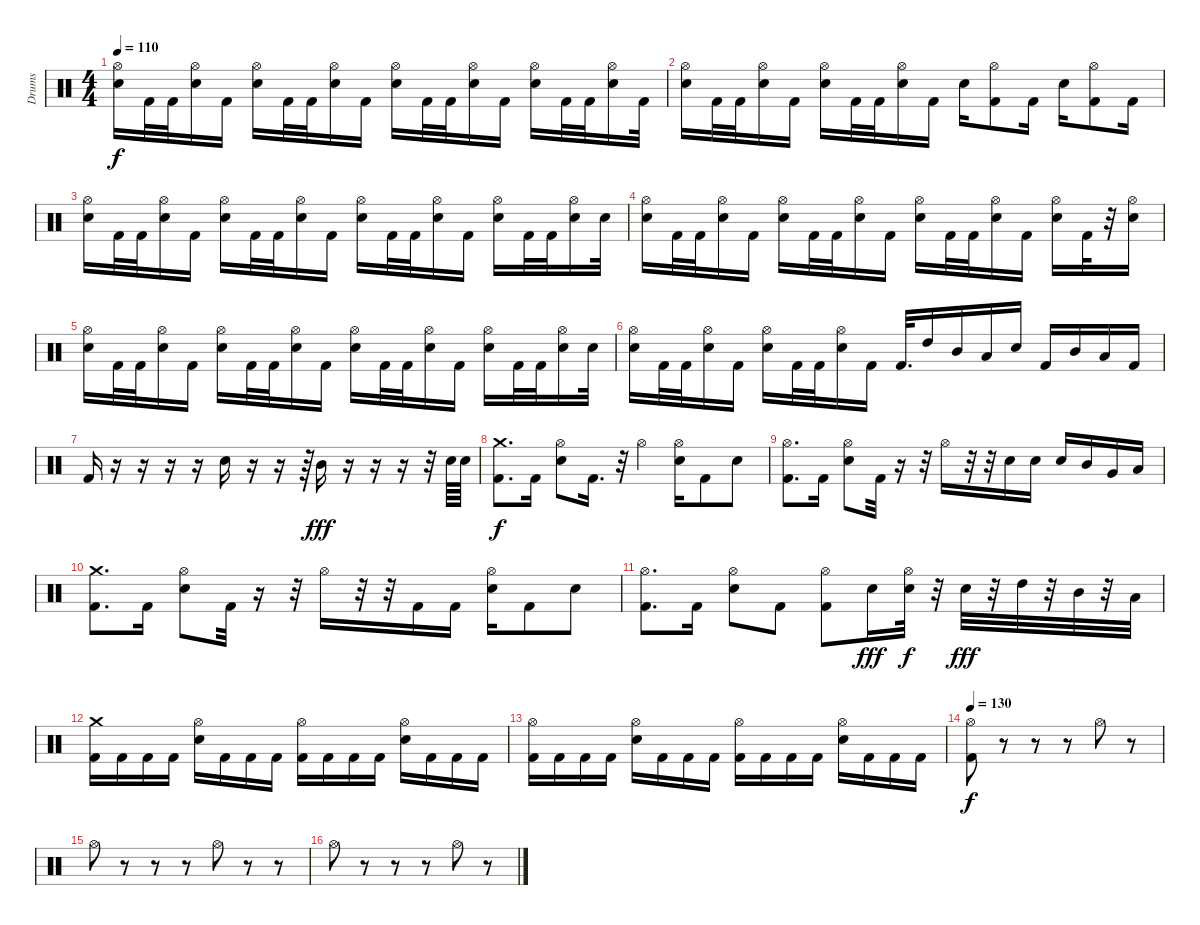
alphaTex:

\track ("Drums" "Drums") {instrument percussion}
\staff {score}
\articulation defaults
\ts (4 4)
\tempo 110
\clef neutral
\ks c
("Hi-Hat (open)" "Snare (hit) 2").16{dy f} "Kick (hit) 2".32 "Kick (hit) 2".32 ("Hi-Hat (open)" "Snare (hit) 2").16 "Kick (hit) 2".16 ("Hi-Hat (open)" "Snare (hit) 2").16 "Kick (hit) 2".32 "Kick (hit) 2".32 ("Hi-Hat (open)" "Snare (hit) 2").16 "Kick (hit) 2".16 ("Hi-Hat (open)" "Snare (hit) 2").16 "Kick (hit) 2".32 "Kick (hit) 2".32 ("Hi-Hat (open)" "Snare (hit) 2").16 "Kick (hit) 2".16 ("Hi-Hat (open)" "Snare (hit) 2").16 "Kick (hit) 2".32 "Kick (hit) 2".32 ("Hi-Hat (open)" "Snare (hit) 2").16 "Kick (hit) 2".32 |
("Hi-Hat (open)" "Snare (hit) 2").16 "Kick (hit) 2".32 "Kick (hit) 2".32 ("Hi-Hat (open)" "Snare (hit) 2").16 "Kick (hit) 2".16 ("Hi-Hat (open)" "Snare (hit) 2").16 "Kick (hit) 2".32 "Kick (hit) 2".32 ("Hi-Hat (open)" "Snare (hit) 2").16 "Kick (hit) 2".16 "Snare (hit) 2".16 ("Hi-Hat (open)" "Kick (hit) 2").8 "Kick (hit) 2".16 "Snare (hit) 2".16 ("Hi-Hat (open)" "Kick (hit) 2").8 "Kick (hit) 2".16 |
("Hi-Hat (open)" "Snare (hit) 2").16 "Kick (hit) 2".32 "Kick (hit) 2".32 ("Hi-Hat (open)" "Snare (hit) 2").16 "Kick (hit) 2".16 ("Hi-Hat (open)" "Snare (hit) 2").16 "Kick (hit) 2".32 "Kick (hit) 2".32 ("Hi-Hat (open)" "Snare (hit) 2").16 "Kick (hit) 2".16 ("Hi-Hat (open)" "Snare (hit) 2").16 "Kick (hit) 2".32 "Kick (hit) 2".32 ("Hi-Hat (open)" "Snare (hit) 2").16 "Kick (hit) 2".16 ("Hi-Hat (open)" "Snare (hit) 2").16 "Kick (hit) 2".32 "Kick (hit) 2".32 ("Hi-Hat (open)" "Snare (hit) 2").16 "Snare (hit) 2".32 |
("Hi-Hat (open)" "Snare (hit) 2").16 "Kick (hit) 2".32 "Kick (hit) 2".32 ("Hi-Hat (open)" "Snare (hit) 2").16 "Kick (hit) 2".16 ("Hi-Hat (open)" "Snare (hit) 2").16 "Kick (hit) 2".32 "Kick (hit) 2".32 ("Hi-Hat (open)" "Snare (hit) 2").16 "Kick (hit) 2".16 ("Hi-Hat (open)" "Snare (hit) 2").16 "Kick (hit) 2".32 "Kick (hit) 2".32 ("Hi-Hat (open)" "Snare (hit) 2").16 "Kick (hit) 2".16 ("Hi-Hat (open)" "Snare (hit) 2").16 "Kick (hit) 2".32 r.32 ("Hi-Hat (open)" "Snare (hit) 2").16 |
("Hi-Hat (open)" "Snare (hit) 2").16 "Kick (hit) 2".32 "Kick (hit) 2".32 ("Hi-Hat (open)" "Snare (hit) 2").16 "Kick (hit) 2".16 ("Hi-Hat (open)" "Snare (hit) 2").16 "Kick (hit) 2".32 "Kick (hit) 2".32 ("Hi-Hat (open)" "Snare (hit) 2").16 "Kick (hit) 2".16 ("Hi-Hat (open)" "Snare (hit) 2").16 "Kick (hit) 2".32 "Kick (hit) 2".32 ("Hi-Hat (open)" "Snare (hit) 2").16 "Kick (hit) 2".16 ("Hi-Hat (open)" "Snare (hit) 2").16 "Kick (hit) 2".32 "Kick (hit) 2".32 ("Hi-Hat (open)" "Snare (hit) 2").16 "Snare (hit) 2".32 |
("Hi-Hat (open)" "Snare (hit) 2").16 "Kick (hit) 2".32 "Kick (hit) 2".32 ("Hi-Hat (open)" "Snare (hit) 2").16 "Kick (hit) 2".16 ("Hi-Hat (open)" "Snare (hit) 2").16 "Kick (hit) 2".32 "Kick (hit) 2".32 ("Hi-Hat (open)" "Snare (hit) 2").16 "Kick (hit) 2".16 "Kick (hit) 2".32{d} "High Tom (hit)".16 "Mid Tom (hit)".16 "Low Tom (hit)".16 "Snare (hit) 2".16 "Kick (hit) 2".16 "Mid Tom (hit)".16 "Low Tom (hit)".16 "Kick (hit) 2".16 |
"Kick (hit) 2".16 r.16 r.16 r.16 r.16 "Snare (hit) 2".16 r.16 r.16 r.64 "Mid Tom (hit)".16{dy fff} r.16 r.16 r.16 r.32 "Snare (hit) 2".64 "Snare (hit) 2".64 |
("Crash medium (hit)" "Kick (hit) 2").8{d dy f} "Kick (hit) 2".16 ("Hi-Hat (open)" "Snare (hit) 2").8 "Kick (hit) 2".16{d} r.32 "Hi-Hat (open)".4 ("Hi-Hat (open)" "Snare (hit) 2").16 "Kick (hit) 2".8 "Snare (hit) 2".8 |
("Hi-Hat (open)" "Kick (hit) 2").8{d} "Kick (hit) 2".16 ("Hi-Hat (open)" "Snare (hit) 2").8 "Kick (hit) 2".32 r.16 r.32 "Hi-Hat (open)".16 r.32 r.32 "Snare (hit) 2".16 "Snare (hit) 2".16 "Snare (hit) 2".16 "Mid Tom (hit)".16 "Very Low Tom (hit)".16 "Low Floor Tom (hit)".16 |
("Crash medium (hit)" "Kick (hit) 2").8{d} "Kick (hit) 2".16 ("Hi-Hat (open)" "Snare (hit) 2").8 "Kick (hit) 2".32 r.16 r.32 "Hi-Hat (open)".16 r.32 r.32 "Kick (hit) 2".16 "Kick (hit) 2".16 ("Hi-Hat (open)" "Snare (hit) 2").16 "Kick (hit) 2".8 "Snare (hit) 2".8 |
("Hi-Hat (open)" "Kick (hit) 2").8{d} "Kick (hit) 2".16 ("Hi-Hat (open)" "Snare (hit) 2").8 "Kick (hit) 2".8 ("Hi-Hat (open)" "Kick (hit) 2").8 "Snare (hit) 2".16{dy fff} ("Hi-Hat (open)" "Snare (hit) 2").32{dy f} r.32 "Snare (hit) 2".32{dy fff} r.32 "High Tom (hit)".32 r.32 "Mid Tom (hit)".32 r.32 "Low Tom (hit)".32 |
("Crash medium (hit)" "Kick (hit) 2").16 "Kick (hit) 2".16 "Kick (hit) 2".16 "Kick (hit) 2".16 ("Hi-Hat (open)" "Snare (hit) 2").16 "Kick (hit) 2".16 "Kick (hit) 2".16 "Kick (hit) 2".16 ("Hi-Hat (open)" "Kick (hit) 2").16 "Kick (hit) 2".16 "Kick (hit) 2".16 "Kick (hit) 2".16 ("Hi-Hat (open)" "Snare (hit) 2").16 "Kick (hit) 2".16 "Kick (hit) 2".16 "Kick (hit) 2".16 |
("Hi-Hat (open)" "Kick (hit) 2").16 "Kick (hit) 2".16 "Kick (hit) 2".16 "Kick (hit) 2".16 ("Hi-Hat (open)" "Snare (hit) 2").16 "Kick (hit) 2".16 "Kick (hit) 2".16 "Kick (hit) 2".16 ("Hi-Hat (open)" "Kick (hit) 2").16 "Kick (hit) 2".16 "Kick (hit) 2".16 "Kick (hit) 2".16 ("Hi-Hat (open)" "Snare (hit) 2").16 "Kick (hit) 2".16 "Kick (hit) 2".16 "Kick (hit) 2".16 |
\tempo 130
("Hi-Hat (open)" "Kick (hit) 2").8{dy f} r.8 r.8 r.8 "Hi-Hat (open)".8 r.8 |
"Hi-Hat (open)".8 r.8 r.8 r.8 "Hi-Hat (open)".8 r.8 r.8 |
"Hi-Hat (open)".8 r.8 r.8 r.8 "Hi-Hat (open)".8 r.8
